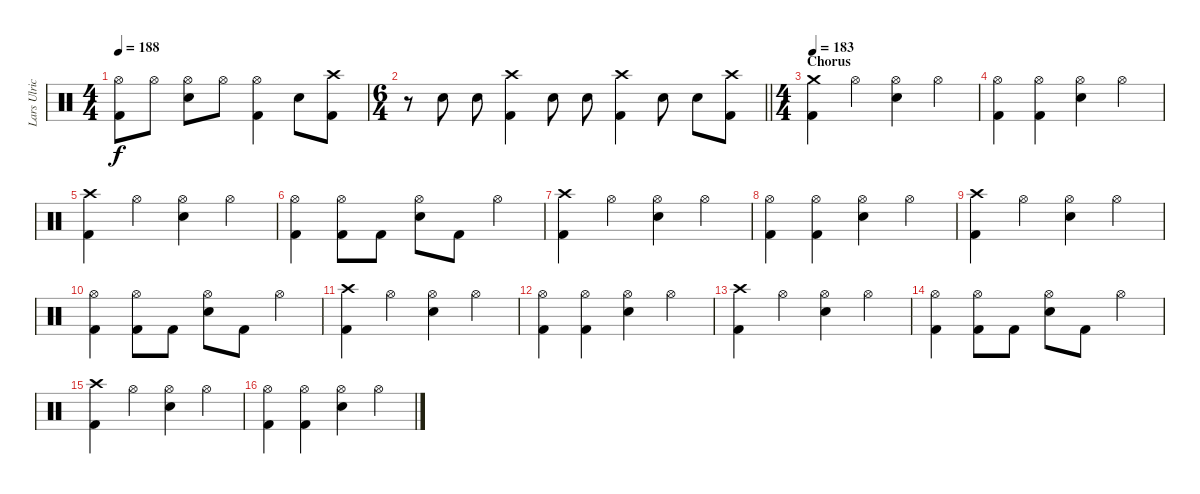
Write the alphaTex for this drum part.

\track ("Lars Ulrich" "Lars Ulric") {instrument percussion}
\staff {score}
\articulation defaults
\ts (4 4)
\tempo 188
\clef neutral
\ks c
("Hi-Hat (open)" "Kick (hit) 2").8{dy f} "Hi-Hat (open)".8 ("Hi-Hat (open)" "Snare (hit) 2").8 "Hi-Hat (open)".8 ("Hi-Hat (open)" "Kick (hit) 2").4 "Snare (hit) 2".8 ("Crash high (hit)" "Kick (hit) 2").8 |
\ts (6 4)
\barLineRight lightlight
r.8 "Snare (hit) 2".8 "Snare (hit) 2".8 ("Crash high (hit)" "Kick (hit) 2").4 "Snare (hit) 2".8 "Snare (hit) 2".8 ("Crash high (hit)" "Kick (hit) 2").4 "Snare (hit) 2".8 "Snare (hit) 2".8 ("Crash high (hit)" "Kick (hit) 2").8 |
\ts (4 4)
\section ("" "Chorus")
\tempo 183
("Crash medium (hit)" "Kick (hit) 2").4 "Hi-Hat (open)".4 ("Hi-Hat (open)" "Snare (hit) 2").4 "Hi-Hat (open)".4 |
("Hi-Hat (open)" "Kick (hit) 2").4 ("Hi-Hat (open)" "Kick (hit) 2").4 ("Hi-Hat (open)" "Snare (hit) 2").4 "Hi-Hat (open)".4 |
("Crash high (hit)" "Kick (hit) 2").4 "Hi-Hat (open)".4 ("Hi-Hat (open)" "Snare (hit) 2").4 "Hi-Hat (open)".4 |
("Hi-Hat (open)" "Kick (hit) 2").4 ("Hi-Hat (open)" "Kick (hit) 2").8 "Kick (hit) 2".8 ("Hi-Hat (open)" "Snare (hit) 2").8 "Kick (hit) 2".8 "Hi-Hat (open)".4 |
("Crash high (hit)" "Kick (hit) 2").4 "Hi-Hat (open)".4 ("Hi-Hat (open)" "Snare (hit) 2").4 "Hi-Hat (open)".4 |
("Hi-Hat (open)" "Kick (hit) 2").4 ("Hi-Hat (open)" "Kick (hit) 2").4 ("Hi-Hat (open)" "Snare (hit) 2").4 "Hi-Hat (open)".4 |
("Crash high (hit)" "Kick (hit) 2").4 "Hi-Hat (open)".4 ("Hi-Hat (open)" "Snare (hit) 2").4 "Hi-Hat (open)".4 |
("Hi-Hat (open)" "Kick (hit) 2").4 ("Hi-Hat (open)" "Kick (hit) 2").8 "Kick (hit) 2".8 ("Hi-Hat (open)" "Snare (hit) 2").8 "Kick (hit) 2".8 "Hi-Hat (open)".4 |
("Crash high (hit)" "Kick (hit) 2").4 "Hi-Hat (open)".4 ("Hi-Hat (open)" "Snare (hit) 2").4 "Hi-Hat (open)".4 |
("Hi-Hat (open)" "Kick (hit) 2").4 ("Hi-Hat (open)" "Kick (hit) 2").4 ("Hi-Hat (open)" "Snare (hit) 2").4 "Hi-Hat (open)".4 |
("Crash high (hit)" "Kick (hit) 2").4 "Hi-Hat (open)".4 ("Hi-Hat (open)" "Snare (hit) 2").4 "Hi-Hat (open)".4 |
("Hi-Hat (open)" "Kick (hit) 2").4 ("Hi-Hat (open)" "Kick (hit) 2").8 "Kick (hit) 2".8 ("Hi-Hat (open)" "Snare (hit) 2").8 "Kick (hit) 2".8 "Hi-Hat (open)".4 |
("Crash high (hit)" "Kick (hit) 2").4 "Hi-Hat (open)".4 ("Hi-Hat (open)" "Snare (hit) 2").4 "Hi-Hat (open)".4 |
("Hi-Hat (open)" "Kick (hit) 2").4 ("Hi-Hat (open)" "Kick (hit) 2").4 ("Hi-Hat (open)" "Snare (hit) 2").4 "Hi-Hat (open)".4
